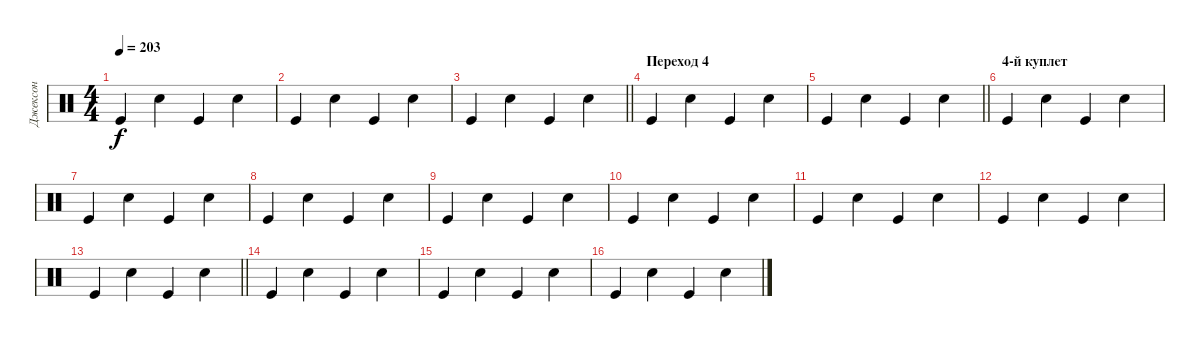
\track ("Джексон" "Джексон") {instrument percussion}
\staff {score}
\articulation defaults
\ts (4 4)
\tempo 203
\clef neutral
\ks c "Kick (hit)".4{dy f} "Snare (hit) 2".4 "Kick (hit)".4 "Snare (hit) 2".4
|
"Kick (hit)".4 "Snare (hit) 2".4 "Kick (hit)".4 "Snare (hit) 2".4 |
\barLineRight lightlight "Kick (hit)".4 "Snare (hit) 2".4 "Kick (hit)".4 "Snare (hit) 2".4
|
\section ("" "Переход 4")
"Kick (hit)".4 "Snare (hit) 2".4 "Kick (hit)".4 "Snare (hit) 2".4 |
\barLineRight lightlight "Kick (hit)".4 "Snare (hit) 2".4 "Kick (hit)".4 "Snare (hit) 2".4
|
\section ("" "4-й куплет")
"Kick (hit)".4 "Snare (hit) 2".4 "Kick (hit)".4 "Snare (hit) 2".4 |
"Kick (hit)".4 "Snare (hit) 2".4 "Kick (hit)".4 "Snare (hit) 2".4 |
"Kick (hit)".4 "Snare (hit) 2".4 "Kick (hit)".4 "Snare (hit) 2".4 |
"Kick (hit)".4 "Snare (hit) 2".4 "Kick (hit)".4 "Snare (hit) 2".4 |
"Kick (hit)".4 "Snare (hit) 2".4 "Kick (hit)".4 "Snare (hit) 2".4 |
"Kick (hit)".4 "Snare (hit) 2".4 "Kick (hit)".4 "Snare (hit) 2".4 |
"Kick (hit)".4 "Snare (hit) 2".4 "Kick (hit)".4 "Snare (hit) 2".4 |
\barLineRight lightlight "Kick (hit)".4 "Snare (hit) 2".4 "Kick (hit)".4 "Snare (hit) 2".4
|
"Kick (hit)".4 "Snare (hit) 2".4 "Kick (hit)".4 "Snare (hit) 2".4 |
"Kick (hit)".4 "Snare (hit) 2".4 "Kick (hit)".4 "Snare (hit) 2".4 |
"Kick (hit)".4 "Snare (hit) 2".4 "Kick (hit)".4 "Snare (hit) 2".4
